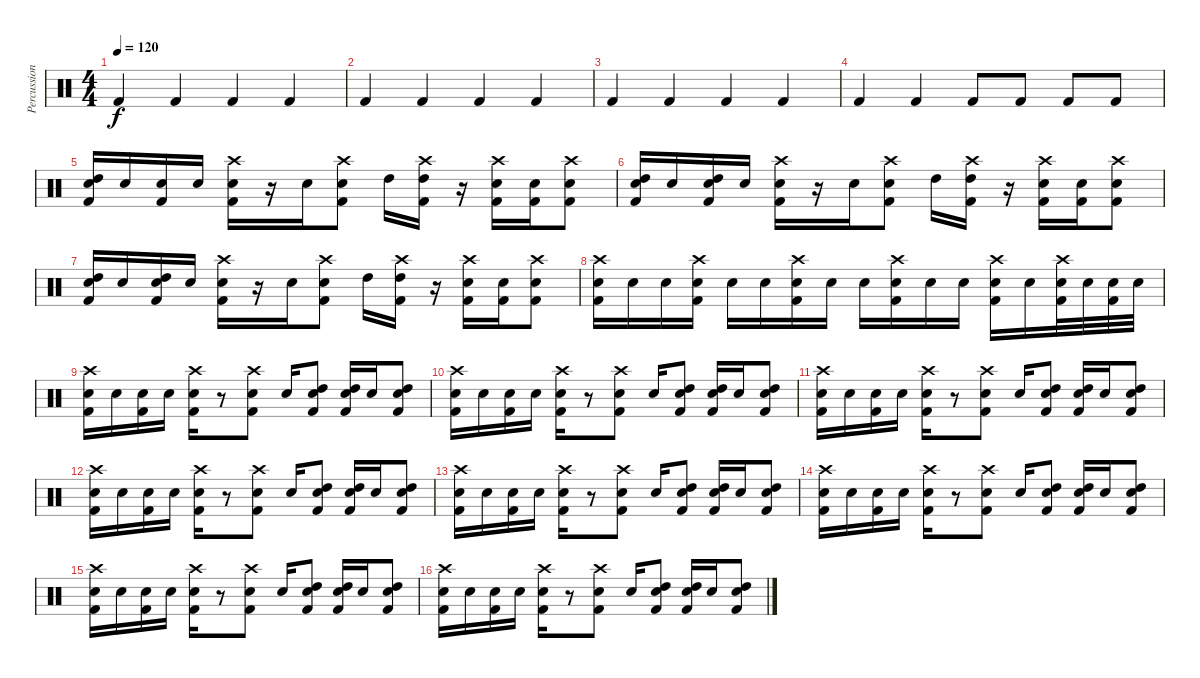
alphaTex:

\track ("Percussion" "Percussion") {instrument percussion}
\staff {score}
\articulation defaults
\ts (4 4)
\tempo 120
\clef neutral
\ks c "Kick (hit) 2".4{dy f} "Kick (hit) 2".4 "Kick (hit) 2".4 "Kick (hit) 2".4
|
"Kick (hit) 2".4 "Kick (hit) 2".4 "Kick (hit) 2".4 "Kick (hit) 2".4 |
"Kick (hit) 2".4 "Kick (hit) 2".4 "Kick (hit) 2".4 "Kick (hit) 2".4 |
"Kick (hit) 2".4 "Kick (hit) 2".4 "Kick (hit) 2".8 "Kick (hit) 2".8 "Kick (hit) 2".8 "Kick (hit) 2".8 |
("High Tom (hit)" "Electric Snare (hit)" "Kick (hit) 2").16 "Electric Snare (hit)".16 ("Electric Snare (hit)" "Kick (hit) 2").16 "Electric Snare (hit)".16 ("Crash high (hit)" "Electric Snare (hit)" "Kick (hit) 2").16 r.16 "Electric Snare (hit)".16 ("Crash high (hit)" "Electric Snare (hit)" "Kick (hit) 2").8 "High Tom (hit)".16 ("Crash high (hit)" "High Tom (hit)" "Kick (hit) 2").16 r.16 ("Crash high (hit)" "Electric Snare (hit)" "Kick (hit) 2").16 ("Electric Snare (hit)" "Kick (hit) 2").16 ("Crash high (hit)" "Electric Snare (hit)" "Kick (hit) 2").8 |
("High Tom (hit)" "Electric Snare (hit)" "Kick (hit) 2").16 "Electric Snare (hit)".16 ("High Tom (hit)" "Electric Snare (hit)" "Kick (hit) 2").16 "Electric Snare (hit)".16 ("Crash high (hit)" "Electric Snare (hit)" "Kick (hit) 2").16 r.16 "Electric Snare (hit)".16 ("Crash high (hit)" "Electric Snare (hit)" "Kick (hit) 2").8 "High Tom (hit)".16 ("Crash high (hit)" "High Tom (hit)" "Kick (hit) 2").16 r.16 ("Crash high (hit)" "Electric Snare (hit)" "Kick (hit) 2").16 ("Electric Snare (hit)" "Kick (hit) 2").16 ("Crash high (hit)" "Electric Snare (hit)" "Kick (hit) 2").8 |
("High Tom (hit)" "Electric Snare (hit)" "Kick (hit) 2").16 "Electric Snare (hit)".16 ("High Tom (hit)" "Electric Snare (hit)" "Kick (hit) 2").16 "Electric Snare (hit)".16 ("Crash high (hit)" "Electric Snare (hit)" "Kick (hit) 2").16 r.16 "Electric Snare (hit)".16 ("Crash high (hit)" "Electric Snare (hit)" "Kick (hit) 2").8 "High Tom (hit)".16 ("Crash high (hit)" "High Tom (hit)" "Kick (hit) 2").16 r.16 ("Crash high (hit)" "Electric Snare (hit)" "Kick (hit) 2").16 ("Electric Snare (hit)" "Kick (hit) 2").16 ("Crash high (hit)" "Electric Snare (hit)" "Kick (hit) 2").8 |
("Crash high (hit)" "Electric Snare (hit)" "Kick (hit) 2").16 "Electric Snare (hit)".16 "Electric Snare (hit)".16 ("Crash high (hit)" "Electric Snare (hit)" "Kick (hit) 2").16 "Electric Snare (hit)".16 "Electric Snare (hit)".16 ("Crash high (hit)" "Electric Snare (hit)" "Kick (hit) 2").16 "Electric Snare (hit)".16 "Electric Snare (hit)".16 ("Crash high (hit)" "Electric Snare (hit)" "Kick (hit) 2").16 "Electric Snare (hit)".16 "Electric Snare (hit)".16 ("Crash high (hit)" "Electric Snare (hit)" "Kick (hit) 2").16 "Electric Snare (hit)".16 ("Crash high (hit)" "Electric Snare (hit)" "Kick (hit) 2").32 "Electric Snare (hit)".32 ("Electric Snare (hit)" "Kick (hit) 2").32 "Electric Snare (hit)".32 |
("Crash high (hit)" "Electric Snare (hit)" "Kick (hit) 2").16 "Electric Snare (hit)".16 ("Electric Snare (hit)" "Kick (hit) 2").16 "Electric Snare (hit)".16 ("Crash high (hit)" "Electric Snare (hit)" "Kick (hit) 2").16 r.8 ("Crash high (hit)" "Electric Snare (hit)" "Kick (hit) 2").8 "Electric Snare (hit)".16 ("High Tom (hit)" "Electric Snare (hit)" "Kick (hit) 2").8 ("High Tom (hit)" "Electric Snare (hit)" "Kick (hit) 2").16 "Electric Snare (hit)".16 ("High Tom (hit)" "Electric Snare (hit)" "Kick (hit) 2").8 |
("Crash high (hit)" "Electric Snare (hit)" "Kick (hit) 2").16 "Electric Snare (hit)".16 ("Electric Snare (hit)" "Kick (hit) 2").16 "Electric Snare (hit)".16 ("Crash high (hit)" "Electric Snare (hit)" "Kick (hit) 2").16 r.8 ("Crash high (hit)" "Electric Snare (hit)" "Kick (hit) 2").8 "Electric Snare (hit)".16 ("High Tom (hit)" "Electric Snare (hit)" "Kick (hit) 2").8 ("High Tom (hit)" "Electric Snare (hit)" "Kick (hit) 2").16 "Electric Snare (hit)".16 ("High Tom (hit)" "Electric Snare (hit)" "Kick (hit) 2").8 |
("Crash high (hit)" "Electric Snare (hit)" "Kick (hit) 2").16 "Electric Snare (hit)".16 ("Electric Snare (hit)" "Kick (hit) 2").16 "Electric Snare (hit)".16 ("Crash high (hit)" "Electric Snare (hit)" "Kick (hit) 2").16 r.8 ("Crash high (hit)" "Electric Snare (hit)" "Kick (hit) 2").8 "Electric Snare (hit)".16 ("High Tom (hit)" "Electric Snare (hit)" "Kick (hit) 2").8 ("High Tom (hit)" "Electric Snare (hit)" "Kick (hit) 2").16 "Electric Snare (hit)".16 ("High Tom (hit)" "Electric Snare (hit)" "Kick (hit) 2").8 |
("Crash high (hit)" "Electric Snare (hit)" "Kick (hit) 2").16 "Electric Snare (hit)".16 ("Electric Snare (hit)" "Kick (hit) 2").16 "Electric Snare (hit)".16 ("Crash high (hit)" "Electric Snare (hit)" "Kick (hit) 2").16 r.8 ("Crash high (hit)" "Electric Snare (hit)" "Kick (hit) 2").8 "Electric Snare (hit)".16 ("High Tom (hit)" "Electric Snare (hit)" "Kick (hit) 2").8 ("High Tom (hit)" "Electric Snare (hit)" "Kick (hit) 2").16 "Electric Snare (hit)".16 ("High Tom (hit)" "Electric Snare (hit)" "Kick (hit) 2").8 |
("Crash high (hit)" "Electric Snare (hit)" "Kick (hit) 2").16 "Electric Snare (hit)".16 ("Electric Snare (hit)" "Kick (hit) 2").16 "Electric Snare (hit)".16 ("Crash high (hit)" "Electric Snare (hit)" "Kick (hit) 2").16 r.8 ("Crash high (hit)" "Electric Snare (hit)" "Kick (hit) 2").8 "Electric Snare (hit)".16 ("High Tom (hit)" "Electric Snare (hit)" "Kick (hit) 2").8 ("High Tom (hit)" "Electric Snare (hit)" "Kick (hit) 2").16 "Electric Snare (hit)".16 ("High Tom (hit)" "Electric Snare (hit)" "Kick (hit) 2").8 |
("Crash high (hit)" "Electric Snare (hit)" "Kick (hit) 2").16 "Electric Snare (hit)".16 ("Electric Snare (hit)" "Kick (hit) 2").16 "Electric Snare (hit)".16 ("Crash high (hit)" "Electric Snare (hit)" "Kick (hit) 2").16 r.8 ("Crash high (hit)" "Electric Snare (hit)" "Kick (hit) 2").8 "Electric Snare (hit)".16 ("High Tom (hit)" "Electric Snare (hit)" "Kick (hit) 2").8 ("High Tom (hit)" "Electric Snare (hit)" "Kick (hit) 2").16 "Electric Snare (hit)".16 ("High Tom (hit)" "Electric Snare (hit)" "Kick (hit) 2").8 |
("Crash high (hit)" "Electric Snare (hit)" "Kick (hit) 2").16 "Electric Snare (hit)".16 ("Electric Snare (hit)" "Kick (hit) 2").16 "Electric Snare (hit)".16 ("Crash high (hit)" "Electric Snare (hit)" "Kick (hit) 2").16 r.8 ("Crash high (hit)" "Electric Snare (hit)" "Kick (hit) 2").8 "Electric Snare (hit)".16 ("High Tom (hit)" "Electric Snare (hit)" "Kick (hit) 2").8 ("High Tom (hit)" "Electric Snare (hit)" "Kick (hit) 2").16 "Electric Snare (hit)".16 ("High Tom (hit)" "Electric Snare (hit)" "Kick (hit) 2").8 |
("Crash high (hit)" "Electric Snare (hit)" "Kick (hit) 2").16 "Electric Snare (hit)".16 ("Electric Snare (hit)" "Kick (hit) 2").16 "Electric Snare (hit)".16 ("Crash high (hit)" "Electric Snare (hit)" "Kick (hit) 2").16 r.8 ("Crash high (hit)" "Electric Snare (hit)" "Kick (hit) 2").8 "Electric Snare (hit)".16 ("High Tom (hit)" "Electric Snare (hit)" "Kick (hit) 2").8 ("High Tom (hit)" "Electric Snare (hit)" "Kick (hit) 2").16 "Electric Snare (hit)".16 ("High Tom (hit)" "Electric Snare (hit)" "Kick (hit) 2").8
